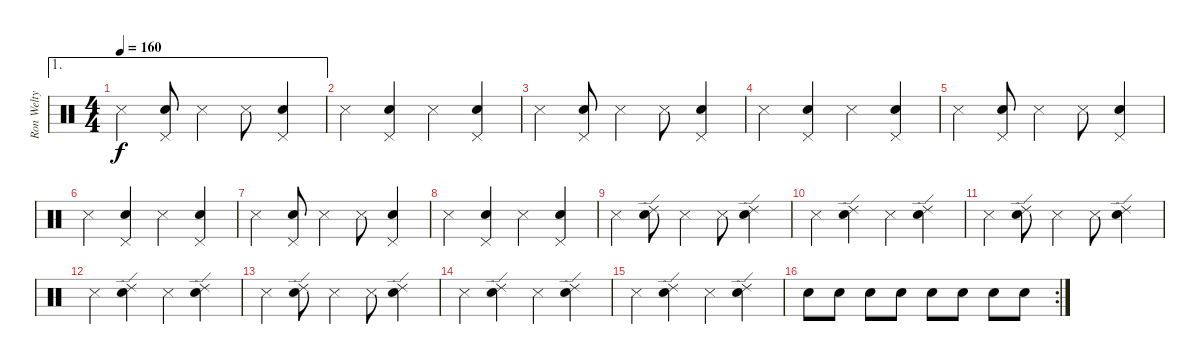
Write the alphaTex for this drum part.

\track ("Ron Welty" "Ron Welty") {instrument percussion}
\staff {score}
\articulation defaults
\ae 1
\ts (4 4)
\tempo 160
\clef neutral
\ks c "Metronome (hit)".4{dy f}
("Pedal Hi-Hat (hit)" "Snare (hit) 2").8 "Metronome (hit)".4 "Metronome (hit)".8 ("Pedal Hi-Hat (hit)" "Snare (hit) 2").4 |
"Metronome (hit)".4 ("Pedal Hi-Hat (hit)" "Snare (hit) 2").4 "Metronome (hit)".4 ("Pedal Hi-Hat (hit)" "Snare (hit) 2").4 |
"Metronome (hit)".4 ("Pedal Hi-Hat (hit)" "Snare (hit) 2").8 "Metronome (hit)".4 "Metronome (hit)".8 ("Pedal Hi-Hat (hit)" "Snare (hit) 2").4 |
"Metronome (hit)".4 ("Pedal Hi-Hat (hit)" "Snare (hit) 2").4 "Metronome (hit)".4 ("Pedal Hi-Hat (hit)" "Snare (hit) 2").4 |
"Metronome (hit)".4 ("Pedal Hi-Hat (hit)" "Snare (hit) 2").8 "Metronome (hit)".4 "Metronome (hit)".8 ("Pedal Hi-Hat (hit)" "Snare (hit) 2").4 |
"Metronome (hit)".4 ("Pedal Hi-Hat (hit)" "Snare (hit) 2").4 "Metronome (hit)".4 ("Pedal Hi-Hat (hit)" "Snare (hit) 2").4 |
"Metronome (hit)".4 ("Pedal Hi-Hat (hit)" "Snare (hit) 2").8 "Metronome (hit)".4 "Metronome (hit)".8 ("Pedal Hi-Hat (hit)" "Snare (hit) 2").4 |
"Metronome (hit)".4 ("Pedal Hi-Hat (hit)" "Snare (hit) 2").4 "Metronome (hit)".4 ("Pedal Hi-Hat (hit)" "Snare (hit) 2").4 |
"Metronome (hit)".4 ("Ride (edge) 2" "Snare (hit) 2").8 "Metronome (hit)".4 "Metronome (hit)".8 ("Ride (edge) 2" "Snare (hit) 2").4 |
"Metronome (hit)".4 ("Ride (edge) 2" "Snare (hit) 2").4 "Metronome (hit)".4 ("Ride (edge) 2" "Snare (hit) 2").4 |
"Metronome (hit)".4 ("Ride (edge) 2" "Snare (hit) 2").8 "Metronome (hit)".4 "Metronome (hit)".8 ("Ride (edge) 2" "Snare (hit) 2").4 |
"Metronome (hit)".4 ("Ride (edge) 2" "Snare (hit) 2").4 "Metronome (hit)".4 ("Ride (edge) 2" "Snare (hit) 2").4 |
"Metronome (hit)".4 ("Ride (edge) 2" "Snare (hit) 2").8 "Metronome (hit)".4 "Metronome (hit)".8 ("Ride (edge) 2" "Snare (hit) 2").4 |
"Metronome (hit)".4 ("Ride (edge) 2" "Snare (hit) 2").4 "Metronome (hit)".4 ("Ride (edge) 2" "Snare (hit) 2").4 |
"Metronome (hit)".4 ("Ride (edge) 2" "Snare (hit) 2").4 "Metronome (hit)".4 ("Ride (edge) 2" "Snare (hit) 2").4 |
\rc 2 "Snare (hit) 2".8 "Snare (hit) 2".8 "Snare (hit) 2".8 "Snare (hit) 2".8 "Snare (hit) 2".8 "Snare (hit) 2".8 "Snare (hit) 2".8 "Snare (hit) 2".8
